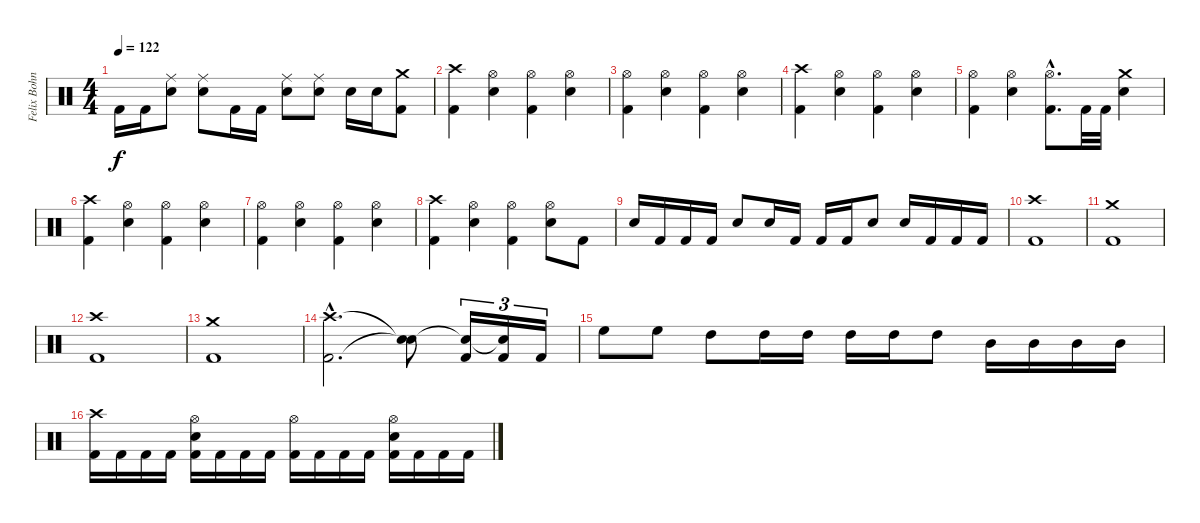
\track ("Felix Bohnke" "Felix Bohn") {instrument percussion}
\staff {score}
\articulation defaults
\ts (4 4)
\tempo 122
\clef neutral
\ks c "Kick (hit) 2".16{dy f} "Kick (hit) 2".16
("Ride (middle)" "Snare (hit) 2").8 ("Ride (middle)" "Snare (hit) 2").8 "Kick (hit) 2".16 "Kick (hit) 2".16 ("Ride (middle)" "Snare (hit) 2").8 ("Ride (middle)" "Snare (hit) 2").8 "Snare (hit) 2".16 "Snare (hit) 2".16 ("Crash medium (hit)" "Kick (hit) 2").8 |
("Crash high (hit)" "Kick (hit) 2").4 ("Hi-Hat (open)" "Snare (hit) 2").4 ("Hi-Hat (open)" "Kick (hit) 2").4 ("Hi-Hat (open)" "Snare (hit) 2").4 |
("Hi-Hat (open)" "Kick (hit) 2").4 ("Hi-Hat (open)" "Snare (hit) 2").4 ("Hi-Hat (open)" "Kick (hit) 2").4 ("Hi-Hat (open)" "Snare (hit) 2").4 |
("Crash high (hit)" "Kick (hit) 2").4 ("Hi-Hat (open)" "Snare (hit) 2").4 ("Hi-Hat (open)" "Kick (hit) 2").4 ("Hi-Hat (open)" "Snare (hit) 2").4 |
("Hi-Hat (open)" "Kick (hit) 2").4 ("Hi-Hat (open)" "Snare (hit) 2").4 ("Hi-Hat (open)"{hac} "Kick (hit) 2"{hac}).8{d} "Kick (hit) 2".32 "Kick (hit) 2".32 ("Crash medium (hit)" "Snare (hit) 2").4 |
("Crash high (hit)" "Kick (hit) 2").4 ("Hi-Hat (open)" "Snare (hit) 2").4 ("Hi-Hat (open)" "Kick (hit) 2").4 ("Hi-Hat (open)" "Snare (hit) 2").4 |
("Hi-Hat (open)" "Kick (hit) 2").4 ("Hi-Hat (open)" "Snare (hit) 2").4 ("Hi-Hat (open)" "Kick (hit) 2").4 ("Hi-Hat (open)" "Snare (hit) 2").4 |
("Crash high (hit)" "Kick (hit) 2").4 ("Hi-Hat (open)" "Snare (hit) 2").4 ("Hi-Hat (open)" "Kick (hit) 2").4 ("Hi-Hat (open)" "Snare (hit) 2").8 "Kick (hit) 2".8 |
"Snare (hit) 2".16 "Kick (hit) 2".16 "Kick (hit) 2".16 "Kick (hit) 2".16 "Snare (hit) 2".8 "Snare (hit) 2".16 "Kick (hit) 2".16 "Kick (hit) 2".16 "Kick (hit) 2".16 "Snare (hit) 2".8 "Snare (hit) 2".16 "Kick (hit) 2".16 "Kick (hit) 2".16 "Kick (hit) 2".16 |
("Crash high (hit)" "Kick (hit) 2").1 |
("Crash medium (hit)" "Kick (hit) 2").1 |
("Crash high (hit)" "Kick (hit) 2").1 |
("Crash medium (hit)" "Kick (hit) 2").1 |
("Crash high (hit)"{hac} "Kick (hit) 2"{hac}).2{d} ("Snare (hit)"{t} "Snare (hit)"{t}).8 ("Snare (hit)"{t} "Kick (hit) 2").16{tu (3 2)} ("Snare (hit)"{t} "Kick (hit) 2").16{tu (3 2)} "Kick (hit) 2".16{tu (3 2)} |
"High Floor Tom (hit)".8 "High Floor Tom (hit)".8 "High Tom (hit)".8 "High Tom (hit)".16 "High Tom (hit)".16 "High Tom (hit)".16 "High Tom (hit)".16 "High Tom (hit)".8 "Mid Tom (hit)".16 "Mid Tom (hit)".16 "Mid Tom (hit)".16 "Mid Tom (hit)".16 |
("Crash high (hit)" "Kick (hit) 2").16 "Kick (hit) 2".16 "Kick (hit) 2".16 "Kick (hit) 2".16 ("Hi-Hat (open)" "Snare (hit) 2" "Kick (hit) 2").16 "Kick (hit) 2".16 "Kick (hit) 2".16 "Kick (hit) 2".16 ("Hi-Hat (open)" "Kick (hit) 2").16 "Kick (hit) 2".16 "Kick (hit) 2".16 "Kick (hit) 2".16 ("Hi-Hat (open)" "Snare (hit) 2" "Kick (hit) 2").16 "Kick (hit) 2".16 "Kick (hit) 2".16 "Kick (hit) 2".16
